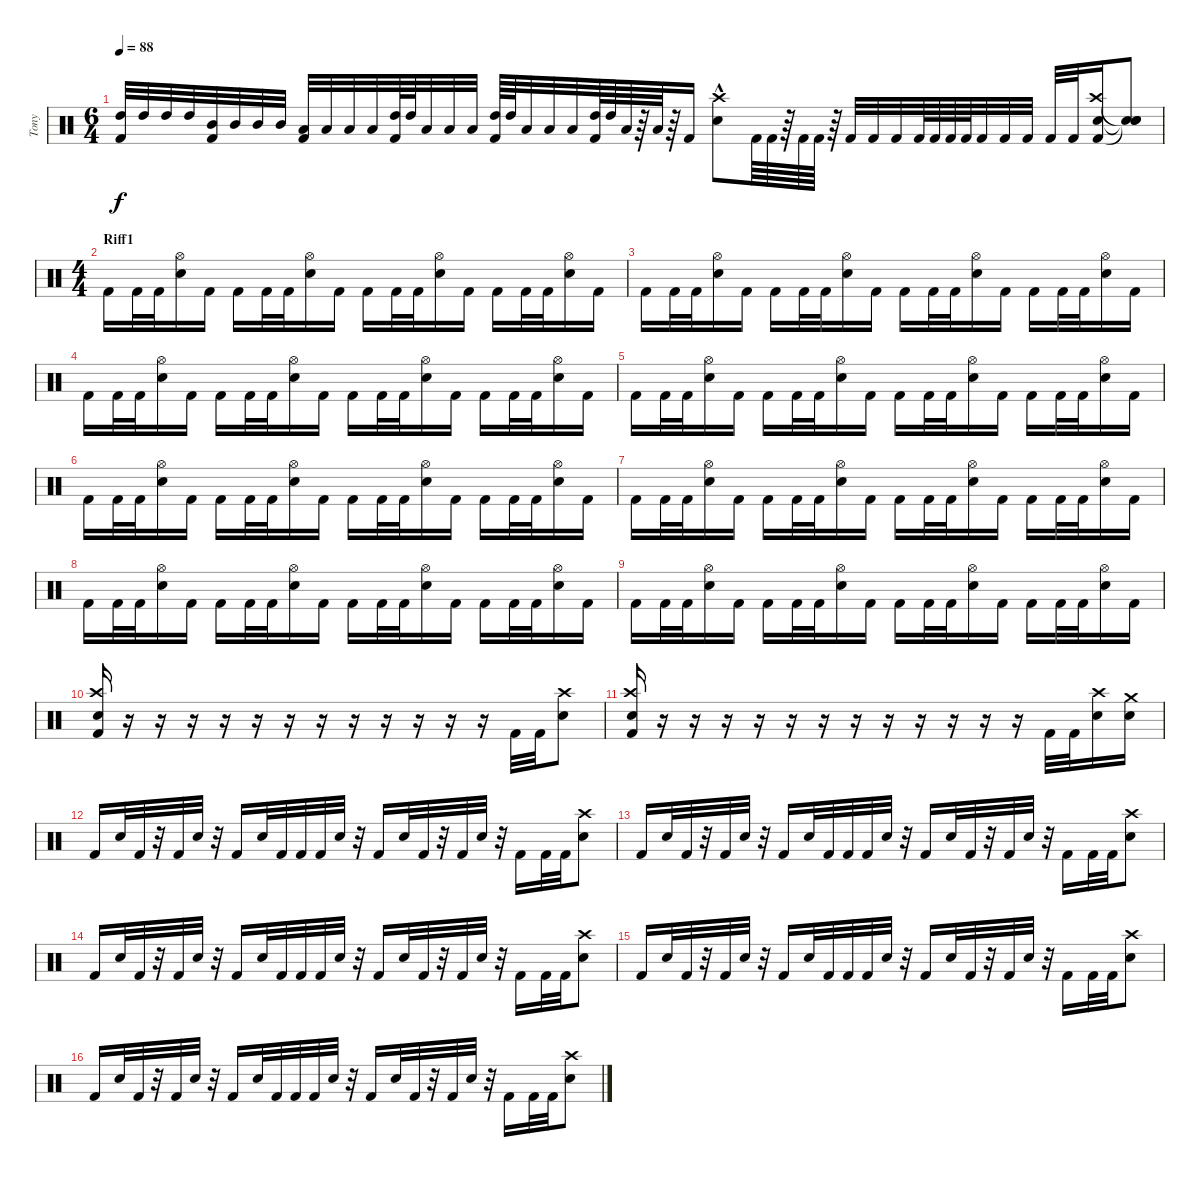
\track ("Tony" "Tony") {instrument percussion}
\staff {score}
\articulation defaults
\ts (6 4)
\tempo 88
\clef neutral
\ks c
("High Tom (hit)" "Kick (hit) 2").32{dy f} "High Tom (hit)".32 "High Tom (hit)".32 "High Tom (hit)".32 ("Mid Tom (hit)" "Kick (hit) 2").32 "Mid Tom (hit)".32 "Mid Tom (hit)".32 "Mid Tom (hit)".32 ("Low Tom (hit)" "Kick (hit) 2").32 "Low Tom (hit)".32 "Low Tom (hit)".32 "Low Tom (hit)".32 ("High Tom (hit)" "Kick (hit) 2").64 "High Tom (hit)".64 "Low Tom (hit)".32 "Low Tom (hit)".32 "Low Tom (hit)".32 ("High Tom (hit)" "Kick (hit) 2").64 "High Tom (hit)".64 "Low Tom (hit)".32 "Low Tom (hit)".32 "Low Tom (hit)".32 ("High Tom (hit)" "Kick (hit) 2").64 "High Tom (hit)".64 "Low Tom (hit)".64 r.64 "Low Tom (hit)".64 r.64 "Kick (hit) 2".16 ("Crash high (hit)"{hac} "Electric Snare (hit)").8 "Kick (hit) 2".64 "Kick (hit) 2".64 r.64 "Kick (hit) 2".64 "Kick (hit) 2".64 r.64 "Kick (hit) 2".32 "Kick (hit) 2".32 "Kick (hit) 2".32 "Kick (hit) 2".64 "Kick (hit) 2".64 "Kick (hit) 2".64 "Kick (hit) 2".64 "Kick (hit) 2".32 "Kick (hit) 2".32 "Kick (hit) 2".32 "Kick (hit) 2".32 "Kick (hit) 2".32 ("Crash high (hit)" "Electric Snare (hit)" "Kick (hit) 2").16 ("Snare (hit)"{t} "Snare (hit)"{t} "Snare (hit)"{t}).8 |
\ts (4 4)
\section ("" "Riff1")
"Kick (hit) 2".16 "Kick (hit) 2".32 "Kick (hit) 2".32 ("Hi-Hat (open)" "Electric Snare (hit)").16 "Kick (hit) 2".16 "Kick (hit) 2".16 "Kick (hit) 2".32 "Kick (hit) 2".32 ("Hi-Hat (open)" "Electric Snare (hit)").16 "Kick (hit) 2".16 "Kick (hit) 2".16 "Kick (hit) 2".32 "Kick (hit) 2".32 ("Hi-Hat (open)" "Electric Snare (hit)").16 "Kick (hit) 2".16 "Kick (hit) 2".16 "Kick (hit) 2".32 "Kick (hit) 2".32 ("Hi-Hat (open)" "Electric Snare (hit)").16 "Kick (hit) 2".16 |
"Kick (hit) 2".16 "Kick (hit) 2".32 "Kick (hit) 2".32 ("Hi-Hat (open)" "Electric Snare (hit)").16 "Kick (hit) 2".16 "Kick (hit) 2".16 "Kick (hit) 2".32 "Kick (hit) 2".32 ("Hi-Hat (open)" "Electric Snare (hit)").16 "Kick (hit) 2".16 "Kick (hit) 2".16 "Kick (hit) 2".32 "Kick (hit) 2".32 ("Hi-Hat (open)" "Electric Snare (hit)").16 "Kick (hit) 2".16 "Kick (hit) 2".16 "Kick (hit) 2".32 "Kick (hit) 2".32 ("Hi-Hat (open)" "Electric Snare (hit)").16 "Kick (hit) 2".16 |
"Kick (hit) 2".16 "Kick (hit) 2".32 "Kick (hit) 2".32 ("Hi-Hat (open)" "Electric Snare (hit)").16 "Kick (hit) 2".16 "Kick (hit) 2".16 "Kick (hit) 2".32 "Kick (hit) 2".32 ("Hi-Hat (open)" "Electric Snare (hit)").16 "Kick (hit) 2".16 "Kick (hit) 2".16 "Kick (hit) 2".32 "Kick (hit) 2".32 ("Hi-Hat (open)" "Electric Snare (hit)").16 "Kick (hit) 2".16 "Kick (hit) 2".16 "Kick (hit) 2".32 "Kick (hit) 2".32 ("Hi-Hat (open)" "Electric Snare (hit)").16 "Kick (hit) 2".16 |
"Kick (hit) 2".16 "Kick (hit) 2".32 "Kick (hit) 2".32 ("Hi-Hat (open)" "Electric Snare (hit)").16 "Kick (hit) 2".16 "Kick (hit) 2".16 "Kick (hit) 2".32 "Kick (hit) 2".32 ("Hi-Hat (open)" "Electric Snare (hit)").16 "Kick (hit) 2".16 "Kick (hit) 2".16 "Kick (hit) 2".32 "Kick (hit) 2".32 ("Hi-Hat (open)" "Electric Snare (hit)").16 "Kick (hit) 2".16 "Kick (hit) 2".16 "Kick (hit) 2".32 "Kick (hit) 2".32 ("Hi-Hat (open)" "Electric Snare (hit)").16 "Kick (hit) 2".16 |
"Kick (hit) 2".16 "Kick (hit) 2".32 "Kick (hit) 2".32 ("Hi-Hat (open)" "Electric Snare (hit)").16 "Kick (hit) 2".16 "Kick (hit) 2".16 "Kick (hit) 2".32 "Kick (hit) 2".32 ("Hi-Hat (open)" "Electric Snare (hit)").16 "Kick (hit) 2".16 "Kick (hit) 2".16 "Kick (hit) 2".32 "Kick (hit) 2".32 ("Hi-Hat (open)" "Electric Snare (hit)").16 "Kick (hit) 2".16 "Kick (hit) 2".16 "Kick (hit) 2".32 "Kick (hit) 2".32 ("Hi-Hat (open)" "Electric Snare (hit)").16 "Kick (hit) 2".16 |
"Kick (hit) 2".16 "Kick (hit) 2".32 "Kick (hit) 2".32 ("Hi-Hat (open)" "Electric Snare (hit)").16 "Kick (hit) 2".16 "Kick (hit) 2".16 "Kick (hit) 2".32 "Kick (hit) 2".32 ("Hi-Hat (open)" "Electric Snare (hit)").16 "Kick (hit) 2".16 "Kick (hit) 2".16 "Kick (hit) 2".32 "Kick (hit) 2".32 ("Hi-Hat (open)" "Electric Snare (hit)").16 "Kick (hit) 2".16 "Kick (hit) 2".16 "Kick (hit) 2".32 "Kick (hit) 2".32 ("Hi-Hat (open)" "Electric Snare (hit)").16 "Kick (hit) 2".16 |
"Kick (hit) 2".16 "Kick (hit) 2".32 "Kick (hit) 2".32 ("Hi-Hat (open)" "Electric Snare (hit)").16 "Kick (hit) 2".16 "Kick (hit) 2".16 "Kick (hit) 2".32 "Kick (hit) 2".32 ("Hi-Hat (open)" "Electric Snare (hit)").16 "Kick (hit) 2".16 "Kick (hit) 2".16 "Kick (hit) 2".32 "Kick (hit) 2".32 ("Hi-Hat (open)" "Electric Snare (hit)").16 "Kick (hit) 2".16 "Kick (hit) 2".16 "Kick (hit) 2".32 "Kick (hit) 2".32 ("Hi-Hat (open)" "Electric Snare (hit)").16 "Kick (hit) 2".16 |
"Kick (hit) 2".16 "Kick (hit) 2".32 "Kick (hit) 2".32 ("Hi-Hat (open)" "Electric Snare (hit)").16 "Kick (hit) 2".16 "Kick (hit) 2".16 "Kick (hit) 2".32 "Kick (hit) 2".32 ("Hi-Hat (open)" "Electric Snare (hit)").16 "Kick (hit) 2".16 "Kick (hit) 2".16 "Kick (hit) 2".32 "Kick (hit) 2".32 ("Hi-Hat (open)" "Electric Snare (hit)").16 "Kick (hit) 2".16 "Kick (hit) 2".16 "Kick (hit) 2".32 "Kick (hit) 2".32 ("Hi-Hat (open)" "Electric Snare (hit)").16 "Kick (hit) 2".16 |
("Crash high (hit)" "Electric Snare (hit)" "Kick (hit) 2").16 r.16 r.16 r.16 r.16 r.16 r.16 r.16 r.16 r.16 r.16 r.16 r.16 "Kick (hit) 2".32 "Kick (hit) 2".32 ("Crash high (hit)" "Electric Snare (hit)").8 |
("Crash high (hit)" "Electric Snare (hit)" "Kick (hit) 2").16 r.16 r.16 r.16 r.16 r.16 r.16 r.16 r.16 r.16 r.16 r.16 r.16 "Kick (hit) 2".32 "Kick (hit) 2".32 ("Crash high (hit)" "Electric Snare (hit)").16 ("Crash medium (hit)" "Electric Snare (hit)").16 |
"Kick (hit) 2".16 "Electric Snare (hit)".32 "Kick (hit) 2".32 r.32 "Kick (hit) 2".32 "Electric Snare (hit)".32 r.32 "Kick (hit) 2".16 "Electric Snare (hit)".32 "Kick (hit) 2".32 "Kick (hit) 2".32 "Kick (hit) 2".32 "Electric Snare (hit)".32 r.32 "Kick (hit) 2".16 "Electric Snare (hit)".32 "Kick (hit) 2".32 r.32 "Kick (hit) 2".32 "Electric Snare (hit)".32 r.32 "Kick (hit) 2".16 "Kick (hit) 2".32 "Kick (hit) 2".32 ("Crash high (hit)" "Electric Snare (hit)").8 |
"Kick (hit) 2".16 "Electric Snare (hit)".32 "Kick (hit) 2".32 r.32 "Kick (hit) 2".32 "Electric Snare (hit)".32 r.32 "Kick (hit) 2".16 "Electric Snare (hit)".32 "Kick (hit) 2".32 "Kick (hit) 2".32 "Kick (hit) 2".32 "Electric Snare (hit)".32 r.32 "Kick (hit) 2".16 "Electric Snare (hit)".32 "Kick (hit) 2".32 r.32 "Kick (hit) 2".32 "Electric Snare (hit)".32 r.32 "Kick (hit) 2".16 "Kick (hit) 2".32 "Kick (hit) 2".32 ("Crash high (hit)" "Electric Snare (hit)").8 |
"Kick (hit) 2".16 "Electric Snare (hit)".32 "Kick (hit) 2".32 r.32 "Kick (hit) 2".32 "Electric Snare (hit)".32 r.32 "Kick (hit) 2".16 "Electric Snare (hit)".32 "Kick (hit) 2".32 "Kick (hit) 2".32 "Kick (hit) 2".32 "Electric Snare (hit)".32 r.32 "Kick (hit) 2".16 "Electric Snare (hit)".32 "Kick (hit) 2".32 r.32 "Kick (hit) 2".32 "Electric Snare (hit)".32 r.32 "Kick (hit) 2".16 "Kick (hit) 2".32 "Kick (hit) 2".32 ("Crash high (hit)" "Electric Snare (hit)").8 |
"Kick (hit) 2".16 "Electric Snare (hit)".32 "Kick (hit) 2".32 r.32 "Kick (hit) 2".32 "Electric Snare (hit)".32 r.32 "Kick (hit) 2".16 "Electric Snare (hit)".32 "Kick (hit) 2".32 "Kick (hit) 2".32 "Kick (hit) 2".32 "Electric Snare (hit)".32 r.32 "Kick (hit) 2".16 "Electric Snare (hit)".32 "Kick (hit) 2".32 r.32 "Kick (hit) 2".32 "Electric Snare (hit)".32 r.32 "Kick (hit) 2".16 "Kick (hit) 2".32 "Kick (hit) 2".32 ("Crash high (hit)" "Electric Snare (hit)").8 |
"Kick (hit) 2".16 "Electric Snare (hit)".32 "Kick (hit) 2".32 r.32 "Kick (hit) 2".32 "Electric Snare (hit)".32 r.32 "Kick (hit) 2".16 "Electric Snare (hit)".32 "Kick (hit) 2".32 "Kick (hit) 2".32 "Kick (hit) 2".32 "Electric Snare (hit)".32 r.32 "Kick (hit) 2".16 "Electric Snare (hit)".32 "Kick (hit) 2".32 r.32 "Kick (hit) 2".32 "Electric Snare (hit)".32 r.32 "Kick (hit) 2".16 "Kick (hit) 2".32 "Kick (hit) 2".32 ("Crash high (hit)" "Electric Snare (hit)").8
